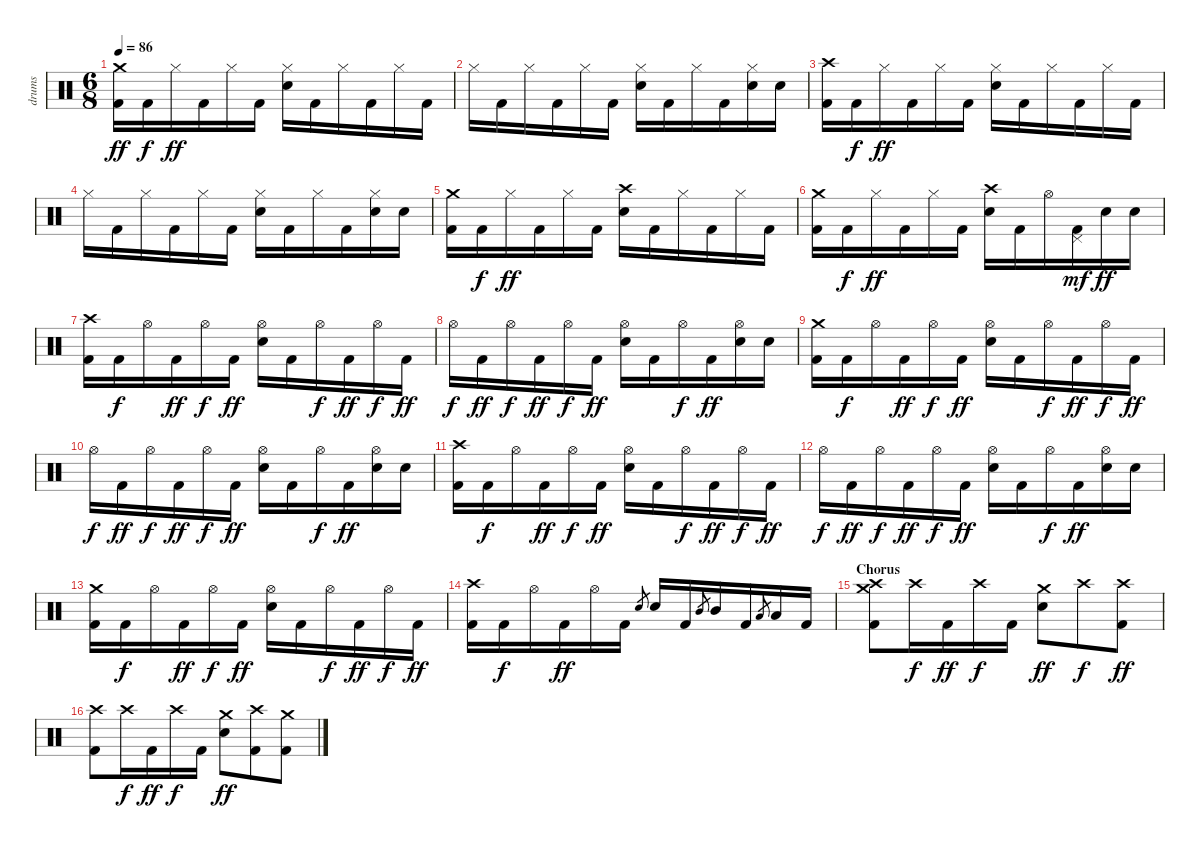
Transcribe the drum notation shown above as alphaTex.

\track ("drums" "drums") {instrument percussion}
\staff {score}
\articulation defaults
\ts (6 8)
\tempo 86
\clef neutral
\ks c
("Crash medium (hit)" "Kick (hit) 2").16{dy ff} "Kick (hit) 2".16{dy f} "Hi-Hat (closed)".16{dy ff} "Kick (hit) 2".16 "Hi-Hat (closed)".16 "Kick (hit) 2".16 ("Hi-Hat (closed)" "Snare (hit) 2").16 "Kick (hit) 2".16 "Hi-Hat (closed)".16 "Kick (hit) 2".16 "Hi-Hat (closed)".16 "Kick (hit) 2".16 |
"Hi-Hat (closed)".16 "Kick (hit) 2".16 "Hi-Hat (closed)".16 "Kick (hit) 2".16 "Hi-Hat (closed)".16 "Kick (hit) 2".16 ("Hi-Hat (closed)" "Snare (hit) 2").16 "Kick (hit) 2".16 "Hi-Hat (closed)".16 "Kick (hit) 2".16 ("Hi-Hat (closed)" "Snare (hit) 2").16 "Snare (hit) 2".16 |
("Crash high (hit)" "Kick (hit) 2").16 "Kick (hit) 2".16{dy f} "Hi-Hat (closed)".16{dy ff} "Kick (hit) 2".16 "Hi-Hat (closed)".16 "Kick (hit) 2".16 ("Hi-Hat (closed)" "Snare (hit) 2").16 "Kick (hit) 2".16 "Hi-Hat (closed)".16 "Kick (hit) 2".16 "Hi-Hat (closed)".16 "Kick (hit) 2".16 |
"Hi-Hat (closed)".16 "Kick (hit) 2".16 "Hi-Hat (closed)".16 "Kick (hit) 2".16 "Hi-Hat (closed)".16 "Kick (hit) 2".16 ("Hi-Hat (closed)" "Snare (hit) 2").16 "Kick (hit) 2".16 "Hi-Hat (closed)".16 "Kick (hit) 2".16 ("Hi-Hat (closed)" "Snare (hit) 2").16 "Snare (hit) 2".16 |
("Crash medium (hit)" "Kick (hit) 2").16 "Kick (hit) 2".16{dy f} "Hi-Hat (closed)".16{dy ff} "Kick (hit) 2".16 "Hi-Hat (closed)".16 "Kick (hit) 2".16 ("Crash high (hit)" "Snare (hit) 2").16 "Kick (hit) 2".16 "Hi-Hat (closed)".16 "Kick (hit) 2".16 "Hi-Hat (closed)".16 "Kick (hit) 2".16 |
("Crash medium (hit)" "Kick (hit) 2").16 "Kick (hit) 2".16{dy f} "Hi-Hat (closed)".16{dy ff} "Kick (hit) 2".16 "Hi-Hat (closed)".16 "Kick (hit) 2".16 ("Crash high (hit)" "Snare (hit) 2").16 "Kick (hit) 2".16 "Hi-Hat (open)".16 ("Kick (hit) 2" "Pedal Hi-Hat (hit)").16{dy mf} "Snare (hit) 2".16{dy ff} "Snare (hit) 2".16 |
("Crash high (hit)" "Kick (hit) 2").16 "Kick (hit) 2".16{dy f} "Hi-Hat (open)".16 "Kick (hit) 2".16{dy ff} "Hi-Hat (open)".16{dy f} "Kick (hit) 2".16{dy ff} ("Hi-Hat (open)" "Snare (hit) 2").16 "Kick (hit) 2".16 "Hi-Hat (open)".16{dy f} "Kick (hit) 2".16{dy ff} "Hi-Hat (open)".16{dy f} "Kick (hit) 2".16{dy ff} |
"Hi-Hat (open)".16{dy f} "Kick (hit) 2".16{dy ff} "Hi-Hat (open)".16{dy f} "Kick (hit) 2".16{dy ff} "Hi-Hat (open)".16{dy f} "Kick (hit) 2".16{dy ff} ("Hi-Hat (open)" "Snare (hit) 2").16 "Kick (hit) 2".16 "Hi-Hat (open)".16{dy f} "Kick (hit) 2".16{dy ff} ("Hi-Hat (open)" "Snare (hit) 2").16 "Snare (hit) 2".16 |
("Crash medium (hit)" "Kick (hit) 2").16 "Kick (hit) 2".16{dy f} "Hi-Hat (open)".16 "Kick (hit) 2".16{dy ff} "Hi-Hat (open)".16{dy f} "Kick (hit) 2".16{dy ff} ("Hi-Hat (open)" "Snare (hit) 2").16 "Kick (hit) 2".16 "Hi-Hat (open)".16{dy f} "Kick (hit) 2".16{dy ff} "Hi-Hat (open)".16{dy f} "Kick (hit) 2".16{dy ff} |
"Hi-Hat (open)".16{dy f} "Kick (hit) 2".16{dy ff} "Hi-Hat (open)".16{dy f} "Kick (hit) 2".16{dy ff} "Hi-Hat (open)".16{dy f} "Kick (hit) 2".16{dy ff} ("Hi-Hat (open)" "Snare (hit) 2").16 "Kick (hit) 2".16 "Hi-Hat (open)".16{dy f} "Kick (hit) 2".16{dy ff} ("Hi-Hat (open)" "Snare (hit) 2").16 "Snare (hit) 2".16 |
("Crash high (hit)" "Kick (hit) 2").16 "Kick (hit) 2".16{dy f} "Hi-Hat (open)".16 "Kick (hit) 2".16{dy ff} "Hi-Hat (open)".16{dy f} "Kick (hit) 2".16{dy ff} ("Hi-Hat (open)" "Snare (hit) 2").16 "Kick (hit) 2".16 "Hi-Hat (open)".16{dy f} "Kick (hit) 2".16{dy ff} "Hi-Hat (open)".16{dy f} "Kick (hit) 2".16{dy ff} |
"Hi-Hat (open)".16{dy f} "Kick (hit) 2".16{dy ff} "Hi-Hat (open)".16{dy f} "Kick (hit) 2".16{dy ff} "Hi-Hat (open)".16{dy f} "Kick (hit) 2".16{dy ff} ("Hi-Hat (open)" "Snare (hit) 2").16 "Kick (hit) 2".16 "Hi-Hat (open)".16{dy f} "Kick (hit) 2".16{dy ff} ("Hi-Hat (open)" "Snare (hit) 2").16 "Snare (hit) 2".16 |
("Crash medium (hit)" "Kick (hit) 2").16 "Kick (hit) 2".16{dy f} "Hi-Hat (open)".16 "Kick (hit) 2".16{dy ff} "Hi-Hat (open)".16{dy f} "Kick (hit) 2".16{dy ff} ("Hi-Hat (open)" "Snare (hit) 2").16 "Kick (hit) 2".16 "Hi-Hat (open)".16{dy f} "Kick (hit) 2".16{dy ff} "Hi-Hat (open)".16{dy f} "Kick (hit) 2".16{dy ff} |
("Crash high (hit)" "Kick (hit) 2").16 "Kick (hit) 2".16{dy f} "Hi-Hat (open)".16 "Kick (hit) 2".16{dy ff} "Hi-Hat (open)".16 "Kick (hit) 2".16 "Snare (hit) 2".8{gr} "Snare (hit) 2".16 "Kick (hit) 2".16 "Mid Tom (hit)".8{gr} "Mid Tom (hit)".16 "Kick (hit) 2".16 "Low Tom (hit)".8{gr} "Low Tom (hit)".16 "Kick (hit) 2".16 |
\section ("" "Chorus")
("Crash medium (hit)" "Crash high (hit)" "Kick (hit) 2").8 "Crash high (hit)".16{dy f} "Kick (hit) 2".16{dy ff} "Crash high (hit)".16{dy f} "Kick (hit) 2".16 ("Crash medium (hit)" "Snare (hit) 2").8{dy ff} "Crash high (hit)".8{dy f} ("Crash high (hit)" "Kick (hit) 2").8{dy ff} |
("Crash high (hit)" "Kick (hit) 2").8 "Crash high (hit)".16{dy f} "Kick (hit) 2".16{dy ff} "Crash high (hit)".16{dy f} "Kick (hit) 2".16 ("Crash medium (hit)" "Snare (hit) 2").8{dy ff} ("Crash high (hit)" "Kick (hit) 2").8 ("Crash medium (hit)" "Kick (hit) 2").8
